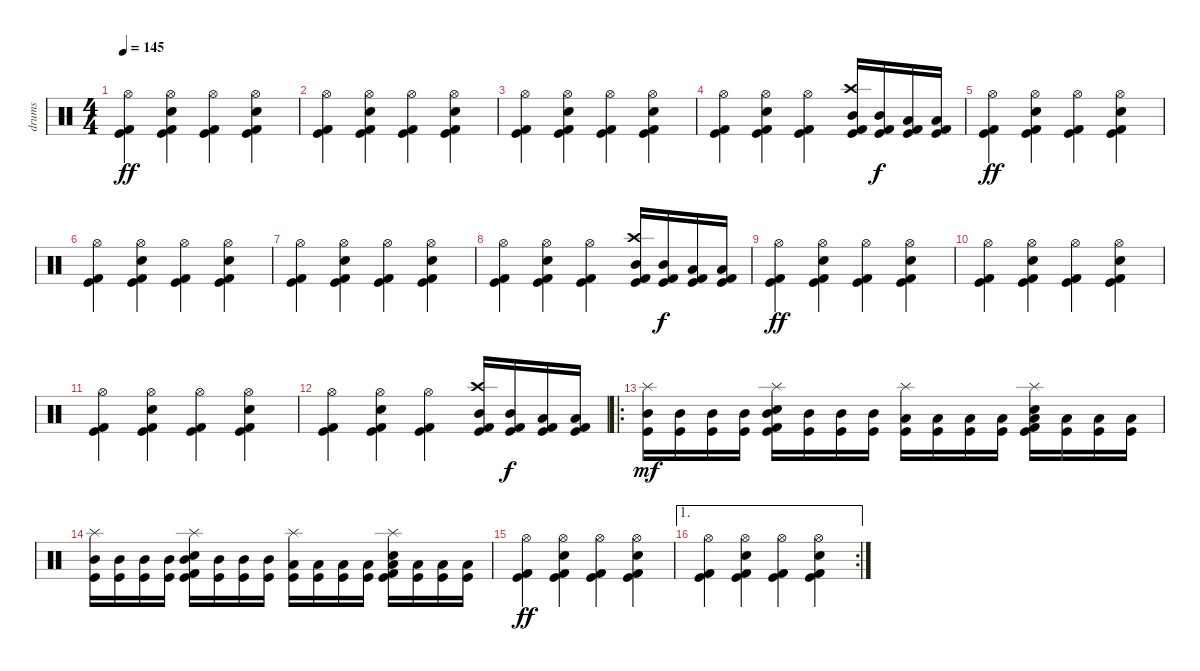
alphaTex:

\track ("drums" "drums") {instrument percussion}
\staff {score}
\articulation defaults
\ts (4 4)
\tempo 145
\clef neutral
\ks c
("Hi-Hat (open)" "Kick (hit) 2" "Kick (hit)").4{dy ff} ("Hi-Hat (open)" "Electric Snare (hit)" "Kick (hit) 2" "Kick (hit)").4 ("Hi-Hat (open)" "Kick (hit) 2" "Kick (hit)").4 ("Hi-Hat (open)" "Electric Snare (hit)" "Kick (hit) 2" "Kick (hit)").4 |
("Hi-Hat (open)" "Kick (hit) 2" "Kick (hit)").4 ("Hi-Hat (open)" "Electric Snare (hit)" "Kick (hit) 2" "Kick (hit)").4 ("Hi-Hat (open)" "Kick (hit) 2" "Kick (hit)").4 ("Hi-Hat (open)" "Electric Snare (hit)" "Kick (hit) 2" "Kick (hit)").4 |
("Hi-Hat (open)" "Kick (hit) 2" "Kick (hit)").4 ("Hi-Hat (open)" "Electric Snare (hit)" "Kick (hit) 2" "Kick (hit)").4 ("Hi-Hat (open)" "Kick (hit) 2" "Kick (hit)").4 ("Hi-Hat (open)" "Electric Snare (hit)" "Kick (hit) 2" "Kick (hit)").4 |
("Hi-Hat (open)" "Kick (hit) 2" "Kick (hit)").4 ("Hi-Hat (open)" "Electric Snare (hit)" "Kick (hit) 2" "Kick (hit)").4 ("Hi-Hat (open)" "Kick (hit) 2" "Kick (hit)").4 ("Crash high (hit)" "Mid Tom (hit)" "Kick (hit) 2" "Kick (hit)").16 ("Mid Tom (hit)" "Kick (hit) 2" "Kick (hit)").16{dy f} ("Low Floor Tom (hit)" "Kick (hit) 2" "Kick (hit)").16 ("Low Floor Tom (hit)" "Kick (hit) 2" "Kick (hit)").16 |
("Hi-Hat (open)" "Kick (hit) 2" "Kick (hit)").4{dy ff} ("Hi-Hat (open)" "Electric Snare (hit)" "Kick (hit) 2" "Kick (hit)").4 ("Hi-Hat (open)" "Kick (hit) 2" "Kick (hit)").4 ("Hi-Hat (open)" "Electric Snare (hit)" "Kick (hit) 2" "Kick (hit)").4 |
("Hi-Hat (open)" "Kick (hit) 2" "Kick (hit)").4 ("Hi-Hat (open)" "Electric Snare (hit)" "Kick (hit) 2" "Kick (hit)").4 ("Hi-Hat (open)" "Kick (hit) 2" "Kick (hit)").4 ("Hi-Hat (open)" "Electric Snare (hit)" "Kick (hit) 2" "Kick (hit)").4 |
("Hi-Hat (open)" "Kick (hit) 2" "Kick (hit)").4 ("Hi-Hat (open)" "Electric Snare (hit)" "Kick (hit) 2" "Kick (hit)").4 ("Hi-Hat (open)" "Kick (hit) 2" "Kick (hit)").4 ("Hi-Hat (open)" "Electric Snare (hit)" "Kick (hit) 2" "Kick (hit)").4 |
("Hi-Hat (open)" "Kick (hit) 2" "Kick (hit)").4 ("Hi-Hat (open)" "Electric Snare (hit)" "Kick (hit) 2" "Kick (hit)").4 ("Hi-Hat (open)" "Kick (hit) 2" "Kick (hit)").4 ("Crash high (hit)" "Mid Tom (hit)" "Kick (hit) 2" "Kick (hit)").16 ("Mid Tom (hit)" "Kick (hit) 2" "Kick (hit)").16{dy f} ("Low Floor Tom (hit)" "Kick (hit) 2" "Kick (hit)").16 ("Low Floor Tom (hit)" "Kick (hit) 2" "Kick (hit)").16 |
("Hi-Hat (open)" "Kick (hit) 2" "Kick (hit)").4{dy ff} ("Hi-Hat (open)" "Electric Snare (hit)" "Kick (hit) 2" "Kick (hit)").4 ("Hi-Hat (open)" "Kick (hit) 2" "Kick (hit)").4 ("Hi-Hat (open)" "Electric Snare (hit)" "Kick (hit) 2" "Kick (hit)").4 |
("Hi-Hat (open)" "Kick (hit) 2" "Kick (hit)").4 ("Hi-Hat (open)" "Electric Snare (hit)" "Kick (hit) 2" "Kick (hit)").4 ("Hi-Hat (open)" "Kick (hit) 2" "Kick (hit)").4 ("Hi-Hat (open)" "Electric Snare (hit)" "Kick (hit) 2" "Kick (hit)").4 |
("Hi-Hat (open)" "Kick (hit) 2" "Kick (hit)").4 ("Hi-Hat (open)" "Electric Snare (hit)" "Kick (hit) 2" "Kick (hit)").4 ("Hi-Hat (open)" "Kick (hit) 2" "Kick (hit)").4 ("Hi-Hat (open)" "Electric Snare (hit)" "Kick (hit) 2" "Kick (hit)").4 |
("Hi-Hat (open)" "Kick (hit) 2" "Kick (hit)").4 ("Hi-Hat (open)" "Electric Snare (hit)" "Kick (hit) 2" "Kick (hit)").4 ("Hi-Hat (open)" "Kick (hit) 2" "Kick (hit)").4 ("Crash high (hit)" "Mid Tom (hit)" "Kick (hit) 2" "Kick (hit)").16 ("Mid Tom (hit)" "Kick (hit) 2" "Kick (hit)").16{dy f} ("Low Floor Tom (hit)" "Kick (hit) 2" "Kick (hit)").16 ("Low Floor Tom (hit)" "Kick (hit) 2" "Kick (hit)").16 |
\ro
("Splash (hit)" "Mid Tom (hit)" "Kick (hit)").16{dy mf} ("Mid Tom (hit)" "Kick (hit)").16 ("Mid Tom (hit)" "Kick (hit)").16 ("Mid Tom (hit)" "Kick (hit)").16 ("Splash (hit)" "Kick (hit) 2" "Electric Snare (hit)" "Mid Tom (hit)" "Kick (hit)").16 ("Mid Tom (hit)" "Kick (hit)").16 ("Mid Tom (hit)" "Kick (hit)").16 ("Mid Tom (hit)" "Kick (hit)").16 ("Splash (hit)" "Low Floor Tom (hit)" "Kick (hit)").16 ("Low Floor Tom (hit)" "Kick (hit)").16 ("Low Floor Tom (hit)" "Kick (hit)").16 ("Low Floor Tom (hit)" "Kick (hit)").16 ("Splash (hit)" "Kick (hit) 2" "Electric Snare (hit)" "Low Floor Tom (hit)" "Kick (hit)").16 ("Low Floor Tom (hit)" "Kick (hit)").16 ("Low Floor Tom (hit)" "Kick (hit)").16 ("Low Floor Tom (hit)" "Kick (hit)").16 |
("Splash (hit)" "Mid Tom (hit)" "Kick (hit)").16 ("Mid Tom (hit)" "Kick (hit)").16 ("Mid Tom (hit)" "Kick (hit)").16 ("Mid Tom (hit)" "Kick (hit)").16 ("Splash (hit)" "Kick (hit) 2" "Electric Snare (hit)" "Mid Tom (hit)" "Kick (hit)").16 ("Mid Tom (hit)" "Kick (hit)").16 ("Mid Tom (hit)" "Kick (hit)").16 ("Mid Tom (hit)" "Kick (hit)").16 ("Splash (hit)" "Low Floor Tom (hit)" "Kick (hit)").16 ("Low Floor Tom (hit)" "Kick (hit)").16 ("Low Floor Tom (hit)" "Kick (hit)").16 ("Low Floor Tom (hit)" "Kick (hit)").16 ("Splash (hit)" "Kick (hit) 2" "Electric Snare (hit)" "Low Floor Tom (hit)" "Kick (hit)").16 ("Low Floor Tom (hit)" "Kick (hit)").16 ("Low Floor Tom (hit)" "Kick (hit)").16 ("Low Floor Tom (hit)" "Kick (hit)").16 |
("Hi-Hat (open)" "Kick (hit) 2" "Kick (hit)").4{dy ff} ("Hi-Hat (open)" "Electric Snare (hit)" "Kick (hit) 2" "Kick (hit)").4 ("Hi-Hat (open)" "Kick (hit) 2" "Kick (hit)").4 ("Hi-Hat (open)" "Electric Snare (hit)" "Kick (hit) 2" "Kick (hit)").4 |
\ae 1
\rc 2
("Hi-Hat (open)" "Kick (hit) 2" "Kick (hit)").4 ("Hi-Hat (open)" "Electric Snare (hit)" "Kick (hit) 2" "Kick (hit)").4 ("Hi-Hat (open)" "Kick (hit) 2" "Kick (hit)").4 ("Hi-Hat (open)" "Electric Snare (hit)" "Kick (hit) 2" "Kick (hit)").4
